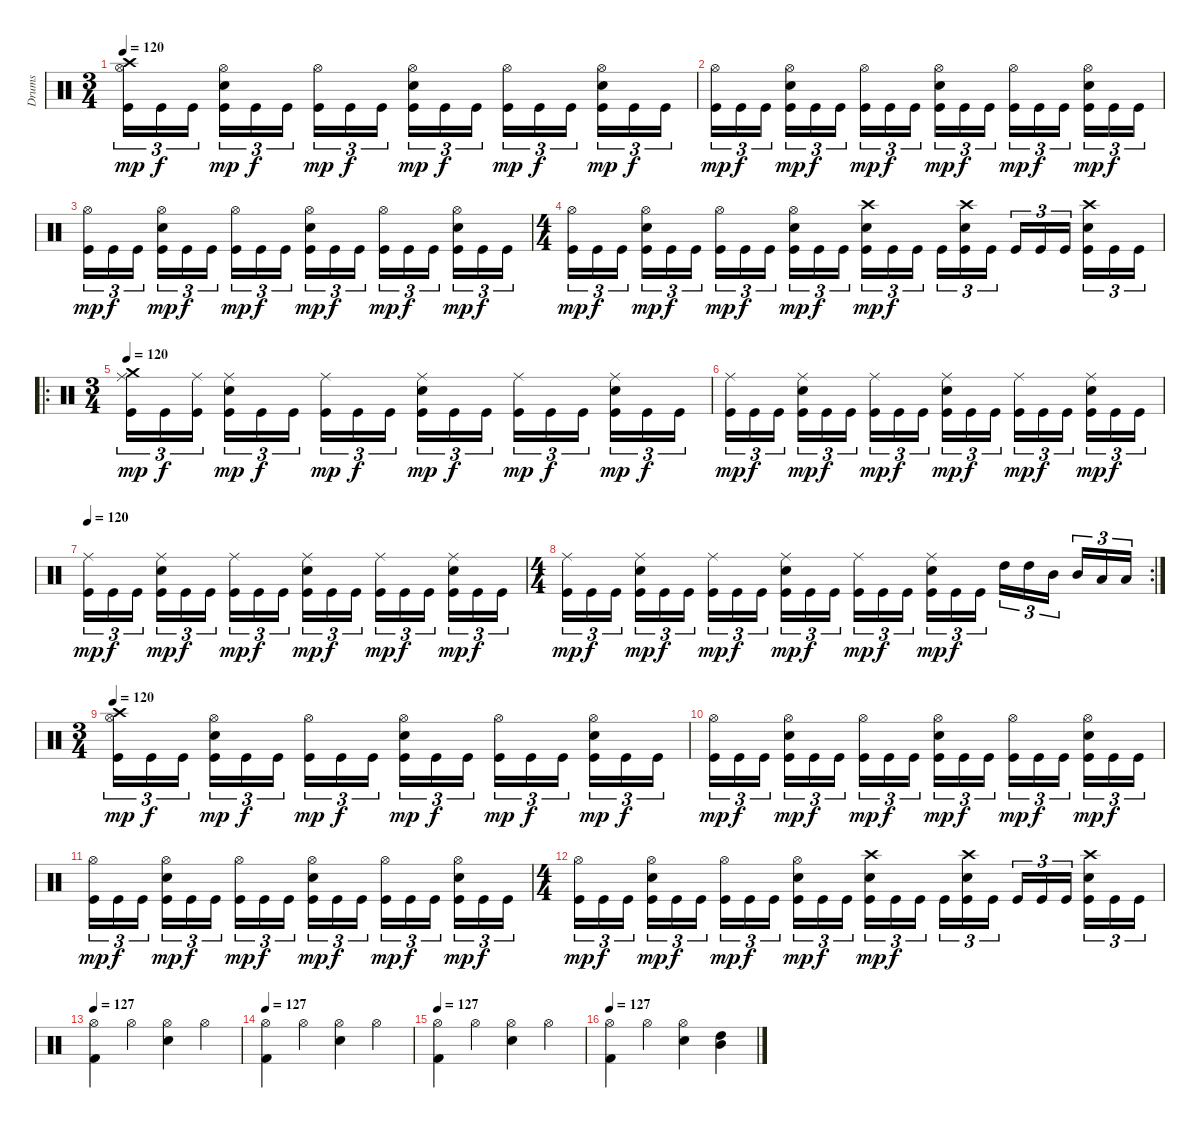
\track ("Drums" "Drums") {instrument percussion}
\staff {score}
\articulation defaults
\ts (3 4)
\tempo 120
\clef neutral
\ks c
("Crash high (hit)" "Hi-Hat (open)" "Kick (hit)").16{tu (3 2) dy mp} "Kick (hit)".16{tu (3 2) dy f} "Kick (hit)".16{tu (3 2)} ("Hi-Hat (open)" "Electric Snare (hit)" "Kick (hit)").16{tu (3 2) dy mp} "Kick (hit)".16{tu (3 2) dy f} "Kick (hit)".16{tu (3 2)} ("Hi-Hat (open)" "Kick (hit)").16{tu (3 2) dy mp} "Kick (hit)".16{tu (3 2) dy f} "Kick (hit)".16{tu (3 2)} ("Hi-Hat (open)" "Electric Snare (hit)" "Kick (hit)").16{tu (3 2) dy mp} "Kick (hit)".16{tu (3 2) dy f} "Kick (hit)".16{tu (3 2)} ("Hi-Hat (open)" "Kick (hit)").16{tu (3 2) dy mp} "Kick (hit)".16{tu (3 2) dy f} "Kick (hit)".16{tu (3 2)} ("Hi-Hat (open)" "Electric Snare (hit)" "Kick (hit)").16{tu (3 2) dy mp} "Kick (hit)".16{tu (3 2) dy f} "Kick (hit)".16{tu (3 2)} |
("Hi-Hat (open)" "Kick (hit)").16{tu (3 2) dy mp} "Kick (hit)".16{tu (3 2) dy f} "Kick (hit)".16{tu (3 2)} ("Hi-Hat (open)" "Electric Snare (hit)" "Kick (hit)").16{tu (3 2) dy mp} "Kick (hit)".16{tu (3 2) dy f} "Kick (hit)".16{tu (3 2)} ("Hi-Hat (open)" "Kick (hit)").16{tu (3 2) dy mp} "Kick (hit)".16{tu (3 2) dy f} "Kick (hit)".16{tu (3 2)} ("Hi-Hat (open)" "Electric Snare (hit)" "Kick (hit)").16{tu (3 2) dy mp} "Kick (hit)".16{tu (3 2) dy f} "Kick (hit)".16{tu (3 2)} ("Hi-Hat (open)" "Kick (hit)").16{tu (3 2) dy mp} "Kick (hit)".16{tu (3 2) dy f} "Kick (hit)".16{tu (3 2)} ("Hi-Hat (open)" "Electric Snare (hit)" "Kick (hit)").16{tu (3 2) dy mp} "Kick (hit)".16{tu (3 2) dy f} "Kick (hit)".16{tu (3 2)} |
("Hi-Hat (open)" "Kick (hit)").16{tu (3 2) dy mp} "Kick (hit)".16{tu (3 2) dy f} "Kick (hit)".16{tu (3 2)} ("Hi-Hat (open)" "Electric Snare (hit)" "Kick (hit)").16{tu (3 2) dy mp} "Kick (hit)".16{tu (3 2) dy f} "Kick (hit)".16{tu (3 2)} ("Hi-Hat (open)" "Kick (hit)").16{tu (3 2) dy mp} "Kick (hit)".16{tu (3 2) dy f} "Kick (hit)".16{tu (3 2)} ("Hi-Hat (open)" "Electric Snare (hit)" "Kick (hit)").16{tu (3 2) dy mp} "Kick (hit)".16{tu (3 2) dy f} "Kick (hit)".16{tu (3 2)} ("Hi-Hat (open)" "Kick (hit)").16{tu (3 2) dy mp} "Kick (hit)".16{tu (3 2) dy f} "Kick (hit)".16{tu (3 2)} ("Hi-Hat (open)" "Electric Snare (hit)" "Kick (hit)").16{tu (3 2) dy mp} "Kick (hit)".16{tu (3 2) dy f} "Kick (hit)".16{tu (3 2)} |
\ts (4 4)
("Hi-Hat (open)" "Kick (hit)").16{tu (3 2) dy mp} "Kick (hit)".16{tu (3 2) dy f} "Kick (hit)".16{tu (3 2)} ("Hi-Hat (open)" "Electric Snare (hit)" "Kick (hit)").16{tu (3 2) dy mp} "Kick (hit)".16{tu (3 2) dy f} "Kick (hit)".16{tu (3 2)} ("Hi-Hat (open)" "Kick (hit)").16{tu (3 2) dy mp} "Kick (hit)".16{tu (3 2) dy f} "Kick (hit)".16{tu (3 2)} ("Hi-Hat (open)" "Electric Snare (hit)" "Kick (hit)").16{tu (3 2) dy mp} "Kick (hit)".16{tu (3 2) dy f} "Kick (hit)".16{tu (3 2)} ("Crash high (hit)" "Electric Snare (hit)" "Kick (hit)").16{tu (3 2) dy mp} "Kick (hit)".16{tu (3 2) dy f} "Kick (hit)".16{tu (3 2)} "Kick (hit)".16{tu (3 2)} ("Crash high (hit)" "Electric Snare (hit)" "Kick (hit)").16{tu (3 2)} "Kick (hit)".16{tu (3 2)} "Kick (hit)".16{tu (3 2)} "Kick (hit)".16{tu (3 2)} "Kick (hit)".16{tu (3 2)} ("Crash high (hit)" "Electric Snare (hit)" "Kick (hit)").16{tu (3 2)} "Kick (hit)".16{tu (3 2)} "Kick (hit)".16{tu (3 2)} |
\ro
\ts (3 4)
\tempo 120
("Crash medium (hit)" "Ride (middle)" "Kick (hit)").16{tu (3 2) dy mp} "Kick (hit)".16{tu (3 2) dy f} ("Ride (middle)" "Kick (hit)").16{tu (3 2)} ("Ride (middle)" "Electric Snare (hit)" "Kick (hit)").16{tu (3 2) dy mp} "Kick (hit)".16{tu (3 2) dy f} "Kick (hit)".16{tu (3 2)} ("Ride (middle)" "Kick (hit)").16{tu (3 2) dy mp} "Kick (hit)".16{tu (3 2) dy f} "Kick (hit)".16{tu (3 2)} ("Ride (middle)" "Electric Snare (hit)" "Kick (hit)").16{tu (3 2) dy mp} "Kick (hit)".16{tu (3 2) dy f} "Kick (hit)".16{tu (3 2)} ("Ride (middle)" "Kick (hit)").16{tu (3 2) dy mp} "Kick (hit)".16{tu (3 2) dy f} "Kick (hit)".16{tu (3 2)} ("Ride (middle)" "Electric Snare (hit)" "Kick (hit)").16{tu (3 2) dy mp} "Kick (hit)".16{tu (3 2) dy f} "Kick (hit)".16{tu (3 2)} |
("Ride (middle)" "Kick (hit)").16{tu (3 2) dy mp} "Kick (hit)".16{tu (3 2) dy f} "Kick (hit)".16{tu (3 2)} ("Ride (middle)" "Electric Snare (hit)" "Kick (hit)").16{tu (3 2) dy mp} "Kick (hit)".16{tu (3 2) dy f} "Kick (hit)".16{tu (3 2)} ("Ride (middle)" "Kick (hit)").16{tu (3 2) dy mp} "Kick (hit)".16{tu (3 2) dy f} "Kick (hit)".16{tu (3 2)} ("Ride (middle)" "Electric Snare (hit)" "Kick (hit)").16{tu (3 2) dy mp} "Kick (hit)".16{tu (3 2) dy f} "Kick (hit)".16{tu (3 2)} ("Ride (middle)" "Kick (hit)").16{tu (3 2) dy mp} "Kick (hit)".16{tu (3 2) dy f} "Kick (hit)".16{tu (3 2)} ("Ride (middle)" "Electric Snare (hit)" "Kick (hit)").16{tu (3 2) dy mp} "Kick (hit)".16{tu (3 2) dy f} "Kick (hit)".16{tu (3 2)} |
\tempo 120
("Ride (middle)" "Kick (hit)").16{tu (3 2) dy mp} "Kick (hit)".16{tu (3 2) dy f} "Kick (hit)".16{tu (3 2)} ("Ride (middle)" "Electric Snare (hit)" "Kick (hit)").16{tu (3 2) dy mp} "Kick (hit)".16{tu (3 2) dy f} "Kick (hit)".16{tu (3 2)} ("Ride (middle)" "Kick (hit)").16{tu (3 2) dy mp} "Kick (hit)".16{tu (3 2) dy f} "Kick (hit)".16{tu (3 2)} ("Ride (middle)" "Electric Snare (hit)" "Kick (hit)").16{tu (3 2) dy mp} "Kick (hit)".16{tu (3 2) dy f} "Kick (hit)".16{tu (3 2)} ("Ride (middle)" "Kick (hit)").16{tu (3 2) dy mp} "Kick (hit)".16{tu (3 2) dy f} "Kick (hit)".16{tu (3 2)} ("Ride (middle)" "Electric Snare (hit)" "Kick (hit)").16{tu (3 2) dy mp} "Kick (hit)".16{tu (3 2) dy f} "Kick (hit)".16{tu (3 2)} |
\rc 2
\ts (4 4)
("Ride (middle)" "Kick (hit)").16{tu (3 2) dy mp} "Kick (hit)".16{tu (3 2) dy f} "Kick (hit)".16{tu (3 2)} ("Ride (middle)" "Electric Snare (hit)" "Kick (hit)").16{tu (3 2) dy mp} "Kick (hit)".16{tu (3 2) dy f} "Kick (hit)".16{tu (3 2)} ("Ride (middle)" "Kick (hit)").16{tu (3 2) dy mp} "Kick (hit)".16{tu (3 2) dy f} "Kick (hit)".16{tu (3 2)} ("Ride (middle)" "Electric Snare (hit)" "Kick (hit)").16{tu (3 2) dy mp} "Kick (hit)".16{tu (3 2) dy f} "Kick (hit)".16{tu (3 2)} ("Ride (middle)" "Kick (hit)").16{tu (3 2) dy mp} "Kick (hit)".16{tu (3 2) dy f} "Kick (hit)".16{tu (3 2)} ("Ride (middle)" "Electric Snare (hit)" "Kick (hit)").16{tu (3 2) dy mp} "Kick (hit)".16{tu (3 2) dy f} "Kick (hit)".16{tu (3 2)} "High Tom (hit)".16{tu (3 2)} "High Tom (hit)".16{tu (3 2)} "Mid Tom (hit)".16{tu (3 2)} "Mid Tom (hit)".16{tu (3 2)} "Low Tom (hit)".16{tu (3 2)} "Low Tom (hit)".16{tu (3 2)} |
\ts (3 4)
\tempo 120
("Crash high (hit)" "Hi-Hat (open)" "Kick (hit)").16{tu (3 2) dy mp} "Kick (hit)".16{tu (3 2) dy f} "Kick (hit)".16{tu (3 2)} ("Hi-Hat (open)" "Electric Snare (hit)" "Kick (hit)").16{tu (3 2) dy mp} "Kick (hit)".16{tu (3 2) dy f} "Kick (hit)".16{tu (3 2)} ("Hi-Hat (open)" "Kick (hit)").16{tu (3 2) dy mp} "Kick (hit)".16{tu (3 2) dy f} "Kick (hit)".16{tu (3 2)} ("Hi-Hat (open)" "Electric Snare (hit)" "Kick (hit)").16{tu (3 2) dy mp} "Kick (hit)".16{tu (3 2) dy f} "Kick (hit)".16{tu (3 2)} ("Hi-Hat (open)" "Kick (hit)").16{tu (3 2) dy mp} "Kick (hit)".16{tu (3 2) dy f} "Kick (hit)".16{tu (3 2)} ("Hi-Hat (open)" "Electric Snare (hit)" "Kick (hit)").16{tu (3 2) dy mp} "Kick (hit)".16{tu (3 2) dy f} "Kick (hit)".16{tu (3 2)} |
("Hi-Hat (open)" "Kick (hit)").16{tu (3 2) dy mp} "Kick (hit)".16{tu (3 2) dy f} "Kick (hit)".16{tu (3 2)} ("Hi-Hat (open)" "Electric Snare (hit)" "Kick (hit)").16{tu (3 2) dy mp} "Kick (hit)".16{tu (3 2) dy f} "Kick (hit)".16{tu (3 2)} ("Hi-Hat (open)" "Kick (hit)").16{tu (3 2) dy mp} "Kick (hit)".16{tu (3 2) dy f} "Kick (hit)".16{tu (3 2)} ("Hi-Hat (open)" "Electric Snare (hit)" "Kick (hit)").16{tu (3 2) dy mp} "Kick (hit)".16{tu (3 2) dy f} "Kick (hit)".16{tu (3 2)} ("Hi-Hat (open)" "Kick (hit)").16{tu (3 2) dy mp} "Kick (hit)".16{tu (3 2) dy f} "Kick (hit)".16{tu (3 2)} ("Hi-Hat (open)" "Electric Snare (hit)" "Kick (hit)").16{tu (3 2) dy mp} "Kick (hit)".16{tu (3 2) dy f} "Kick (hit)".16{tu (3 2)} |
("Hi-Hat (open)" "Kick (hit)").16{tu (3 2) dy mp} "Kick (hit)".16{tu (3 2) dy f} "Kick (hit)".16{tu (3 2)} ("Hi-Hat (open)" "Electric Snare (hit)" "Kick (hit)").16{tu (3 2) dy mp} "Kick (hit)".16{tu (3 2) dy f} "Kick (hit)".16{tu (3 2)} ("Hi-Hat (open)" "Kick (hit)").16{tu (3 2) dy mp} "Kick (hit)".16{tu (3 2) dy f} "Kick (hit)".16{tu (3 2)} ("Hi-Hat (open)" "Electric Snare (hit)" "Kick (hit)").16{tu (3 2) dy mp} "Kick (hit)".16{tu (3 2) dy f} "Kick (hit)".16{tu (3 2)} ("Hi-Hat (open)" "Kick (hit)").16{tu (3 2) dy mp} "Kick (hit)".16{tu (3 2) dy f} "Kick (hit)".16{tu (3 2)} ("Hi-Hat (open)" "Electric Snare (hit)" "Kick (hit)").16{tu (3 2) dy mp} "Kick (hit)".16{tu (3 2) dy f} "Kick (hit)".16{tu (3 2)} |
\ts (4 4)
("Hi-Hat (open)" "Kick (hit)").16{tu (3 2) dy mp} "Kick (hit)".16{tu (3 2) dy f} "Kick (hit)".16{tu (3 2)} ("Hi-Hat (open)" "Electric Snare (hit)" "Kick (hit)").16{tu (3 2) dy mp} "Kick (hit)".16{tu (3 2) dy f} "Kick (hit)".16{tu (3 2)} ("Hi-Hat (open)" "Kick (hit)").16{tu (3 2) dy mp} "Kick (hit)".16{tu (3 2) dy f} "Kick (hit)".16{tu (3 2)} ("Hi-Hat (open)" "Electric Snare (hit)" "Kick (hit)").16{tu (3 2) dy mp} "Kick (hit)".16{tu (3 2) dy f} "Kick (hit)".16{tu (3 2)} ("Crash high (hit)" "Electric Snare (hit)" "Kick (hit)").16{tu (3 2) dy mp} "Kick (hit)".16{tu (3 2) dy f} "Kick (hit)".16{tu (3 2)} "Kick (hit)".16{tu (3 2)} ("Crash high (hit)" "Electric Snare (hit)" "Kick (hit)").16{tu (3 2)} "Kick (hit)".16{tu (3 2)} "Kick (hit)".16{tu (3 2)} "Kick (hit)".16{tu (3 2)} "Kick (hit)".16{tu (3 2)} ("Crash high (hit)" "Electric Snare (hit)" "Kick (hit)").16{tu (3 2)} "Kick (hit)".16{tu (3 2)} "Kick (hit)".16{tu (3 2)} |
\tempo 127
("Hi-Hat (open)" "Kick (hit) 2").4 "Hi-Hat (open)".4 ("Hi-Hat (open)" "Electric Snare (hit)").4 "Hi-Hat (open)".4 |
\tempo 127
("Hi-Hat (open)" "Kick (hit) 2").4 "Hi-Hat (open)".4 ("Hi-Hat (open)" "Electric Snare (hit)").4 "Hi-Hat (open)".4 |
\tempo 127
("Hi-Hat (open)" "Kick (hit) 2").4 "Hi-Hat (open)".4 ("Hi-Hat (open)" "Electric Snare (hit)").4 "Hi-Hat (open)".4 |
\tempo 127
("Hi-Hat (open)" "Kick (hit) 2").4 "Hi-Hat (open)".4 ("Hi-Hat (open)" "Electric Snare (hit)").4 ("High Tom (hit)" "Mid Tom (hit)").4
